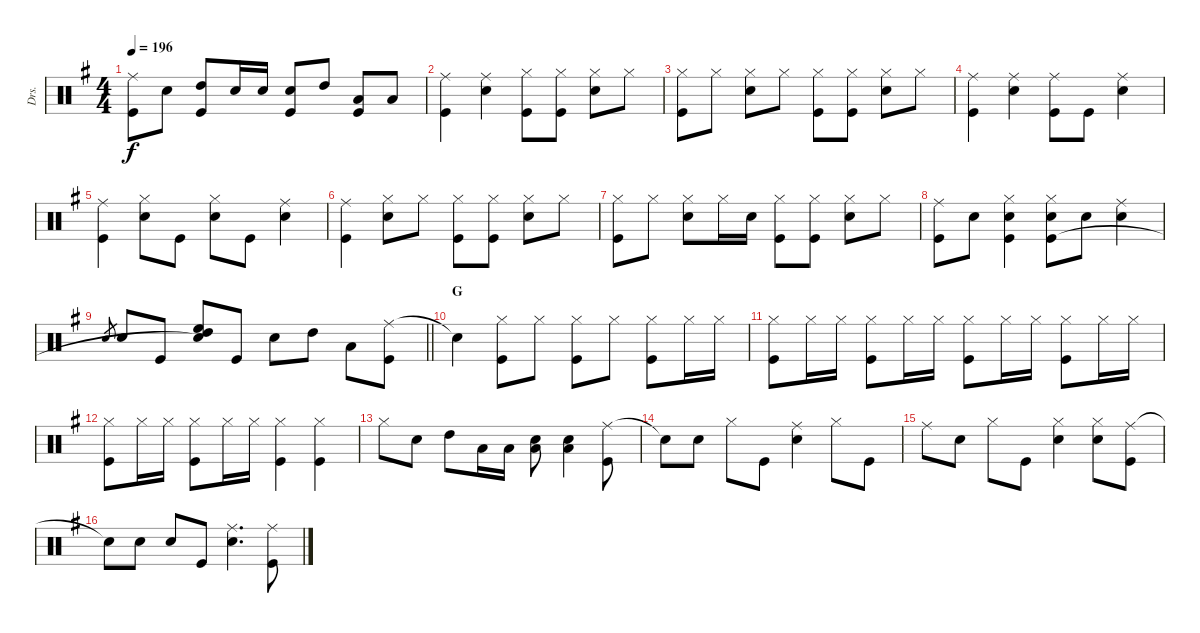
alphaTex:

\track ("Drs." "Drs.") {instrument percussion}
\staff {score}
\articulation defaults
\ts (4 4)
\tempo 196
\clef neutral
\ks g
("Ride (middle)" "Kick (hit)").8{dy f} "Snare (hit) 2".8 ("High Tom (hit)" "Kick (hit)").8 "Snare (hit) 2".16 "Snare (hit) 2".16 ("Snare (hit) 2" "Kick (hit)").8 "High Tom (hit)".8 ("Low Tom (hit)" "Kick (hit)").8 "Low Tom (hit)".8 |
("Ride (middle)" "Kick (hit)").4 ("Ride (middle)" "Snare (hit) 2").4 ("Hi-Hat (closed)" "Kick (hit)").8 ("Hi-Hat (closed)" "Kick (hit)").8 ("Hi-Hat (closed)" "Snare (hit) 2").8 "Hi-Hat (closed)".8 |
("Hi-Hat (closed)" "Kick (hit)").8 "Hi-Hat (closed)".8 ("Hi-Hat (closed)" "Snare (hit) 2").8 "Hi-Hat (closed)".8 ("Hi-Hat (closed)" "Kick (hit)").8 ("Hi-Hat (closed)" "Kick (hit)").8 ("Hi-Hat (closed)" "Snare (hit) 2").8 "Hi-Hat (closed)".8 |
("Ride (middle)" "Kick (hit)").4 ("Ride (middle)" "Snare (hit) 2").4 ("Ride (middle)" "Kick (hit)").8 "Kick (hit)".8 ("Ride (middle)" "Snare (hit) 2").4 |
("Ride (middle)" "Kick (hit)").4 ("Hi-Hat (closed)" "Snare (hit) 2").8 "Kick (hit)".8 ("Hi-Hat (closed)" "Snare (hit) 2").8 "Kick (hit)".8 ("Ride (middle)" "Snare (hit) 2").4 |
("Ride (middle)" "Kick (hit)").4 ("Hi-Hat (closed)" "Snare (hit) 2").8 "Hi-Hat (closed)".8 ("Hi-Hat (closed)" "Kick (hit)").8 ("Hi-Hat (closed)" "Kick (hit)").8 ("Hi-Hat (closed)" "Snare (hit) 2").8 "Hi-Hat (closed)".8 |
("Hi-Hat (closed)" "Kick (hit)").8 "Hi-Hat (closed)".8 ("Hi-Hat (closed)" "Snare (hit) 2").8 "Hi-Hat (closed)".16 "Snare (hit) 2".16 ("Hi-Hat (closed)" "Kick (hit)").8 ("Hi-Hat (closed)" "Kick (hit)").8 ("Hi-Hat (closed)" "Snare (hit) 2").8 "Hi-Hat (closed)".8 |
("Ride (middle)" "Kick (hit)").8 "Snare (hit) 2".8 ("Hi-Hat (closed)" "Snare (hit) 2" "Kick (hit)").4 ("Hi-Hat (closed)" "Snare (hit) 2" "Kick (hit)").8 "Snare (hit) 2".8 ("Ride (middle)" "Snare (hit) 2").4 |
\barLineRight lightlight "Snare (hit) 2".8{gr} "Snare (hit) 2".8 "Kick (hit)".8
("High Floor Tom (hit)" "High Tom (hit)" "Snare (hit)"{t}).8 "Kick (hit)".8 "Snare (hit) 2".8 "High Tom (hit)".8 "Low Tom (hit)".8 ("Ride (middle)" "Kick (hit)").8 |
\section ("" "G")
"Snare (hit)"{t}.4 ("Hi-Hat (closed)" "Kick (hit)").8 "Hi-Hat (closed)".8 ("Hi-Hat (closed)" "Kick (hit)").8 "Hi-Hat (closed)".8 ("Hi-Hat (closed)" "Kick (hit)").8 "Hi-Hat (closed)".16 "Hi-Hat (closed)".16 |
("Hi-Hat (closed)" "Kick (hit)").8 "Hi-Hat (closed)".16 "Hi-Hat (closed)".16 ("Hi-Hat (closed)" "Kick (hit)").8 "Hi-Hat (closed)".16 "Hi-Hat (closed)".16 ("Hi-Hat (closed)" "Kick (hit)").8 "Hi-Hat (closed)".16 "Hi-Hat (closed)".16 ("Hi-Hat (closed)" "Kick (hit)").8 "Hi-Hat (closed)".16 "Hi-Hat (closed)".16 |
("Hi-Hat (closed)" "Kick (hit)").8 "Hi-Hat (closed)".16 "Hi-Hat (closed)".16 ("Hi-Hat (closed)" "Kick (hit)").8 "Hi-Hat (closed)".16 "Hi-Hat (closed)".16 ("Hi-Hat (closed)" "Kick (hit)").4 ("Hi-Hat (closed)" "Kick (hit)").4 |
"Hi-Hat (closed)".8 "Snare (hit) 2".8 "High Tom (hit)".8 "Low Tom (hit)".16 "Low Tom (hit)".16 ("Low Tom (hit)" "Snare (hit) 2").8 ("Low Tom (hit)" "Snare (hit) 2").4 ("Ride (middle)" "Kick (hit)").8 |
"Snare (hit)"{t}.8 "Snare (hit) 2".8 "Hi-Hat (closed)".8 "Kick (hit)".8 ("Ride (middle)" "Snare (hit) 2").4 "Hi-Hat (closed)".8 "Kick (hit)".8 |
"Ride (middle)".8 "Snare (hit) 2".8 "Hi-Hat (closed)".8 "Kick (hit)".8 ("Hi-Hat (closed)" "Snare (hit) 2").4 ("Hi-Hat (closed)" "Snare (hit) 2").8 ("Ride (middle)" "Kick (hit)").8 |
"Snare (hit)"{t}.8 "Snare (hit) 2".8 "Snare (hit) 2".8 "Kick (hit)".8 ("Ride (middle)" "Snare (hit) 2").4{d} ("Ride (middle)" "Kick (hit)").8
